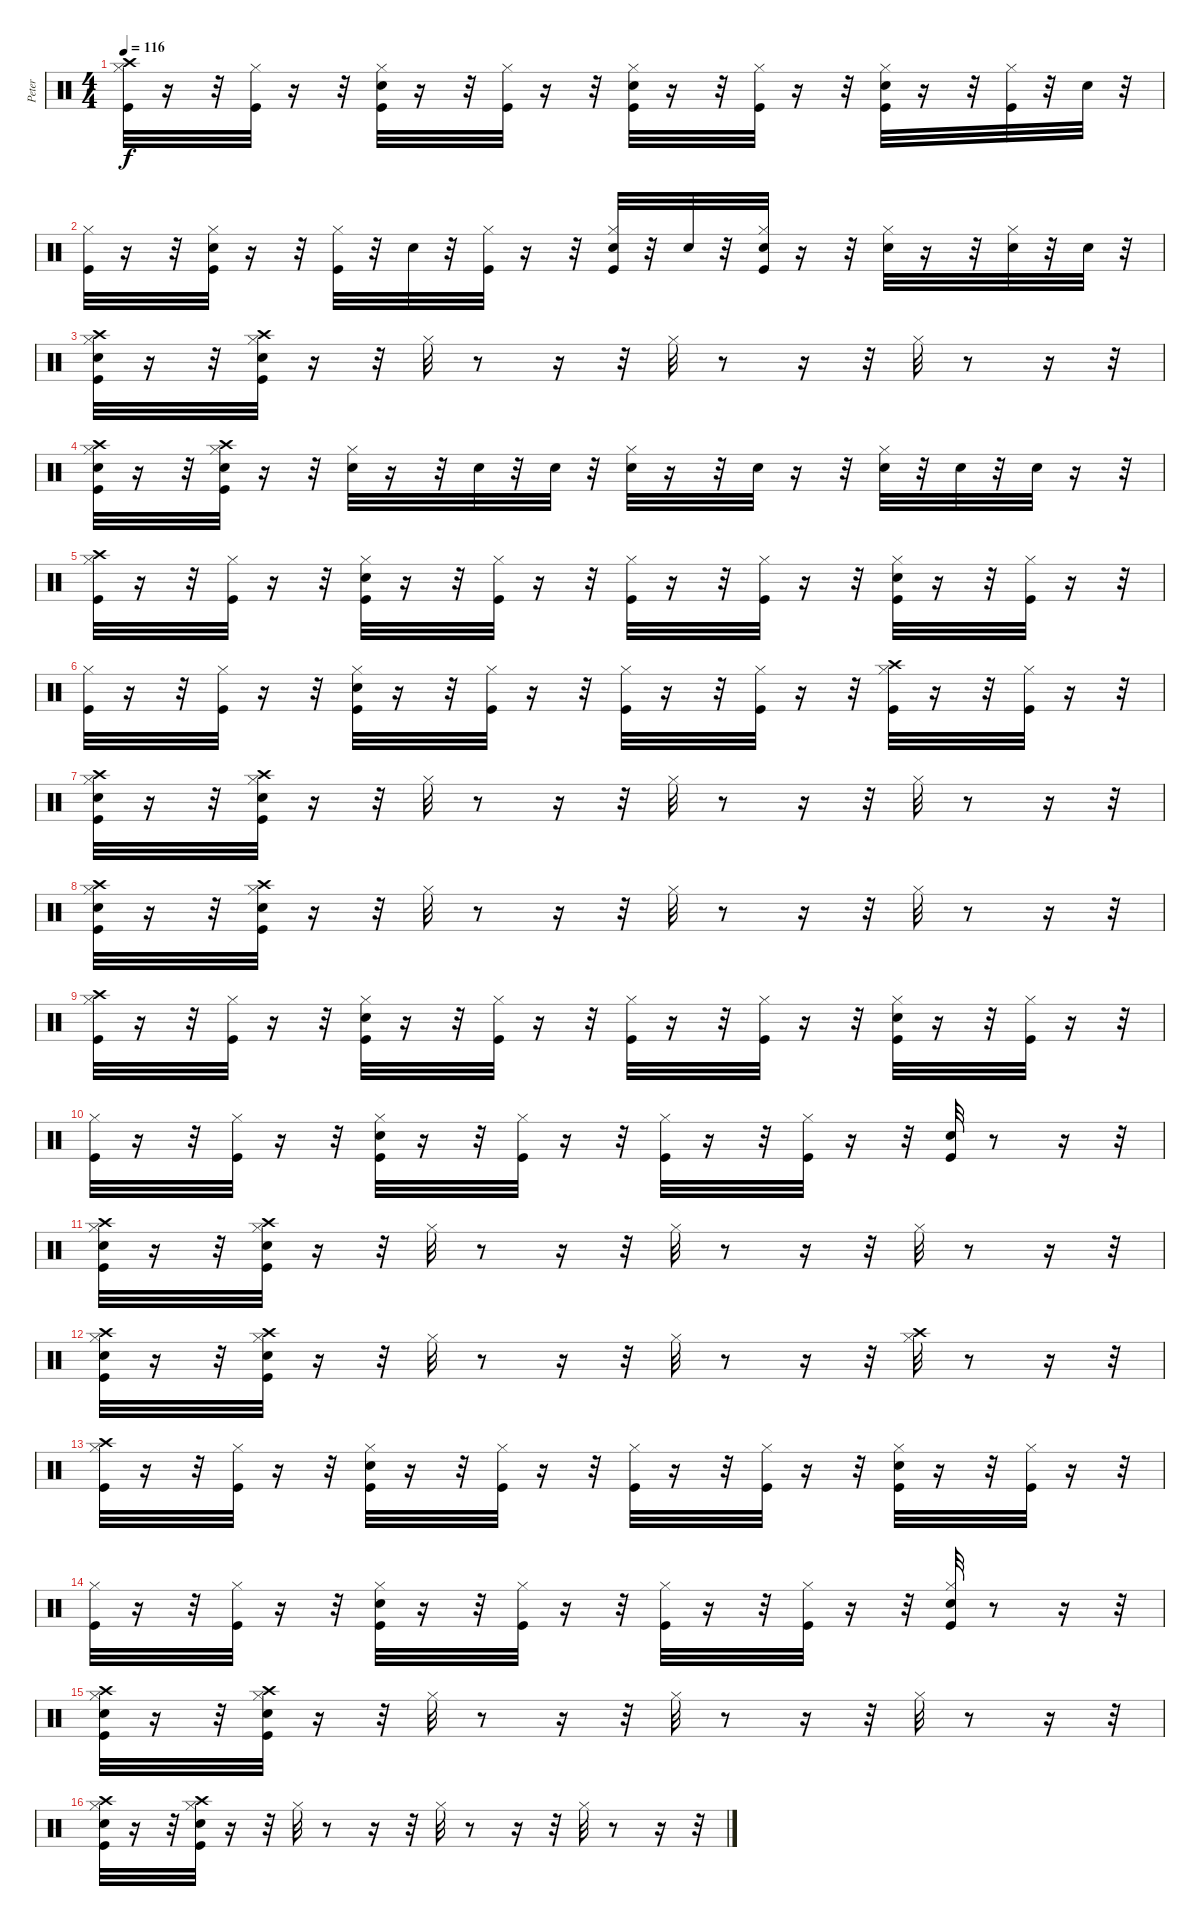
\track ("Peter" "Peter") {instrument percussion}
\staff {score}
\articulation defaults
\ts (4 4)
\tempo 116
\clef neutral
\ks c
("Crash high (hit)" "Kick (hit)" "Hi-Hat (closed)").32{dy f} r.16 r.32 ("Kick (hit)" "Hi-Hat (closed)").32 r.16 r.32 ("Snare (hit) 2" "Kick (hit)" "Hi-Hat (closed)").32 r.16 r.32 ("Hi-Hat (closed)" "Kick (hit)").32 r.16 r.32 ("Hi-Hat (closed)" "Snare (hit) 2" "Kick (hit)").32 r.16 r.32 ("Hi-Hat (closed)" "Kick (hit)").32 r.16 r.32 ("Hi-Hat (closed)" "Snare (hit) 2" "Kick (hit)").32 r.16 r.32 ("Hi-Hat (closed)" "Kick (hit)").32 r.32 "Snare (hit) 2".32 r.32 |
("Kick (hit)" "Hi-Hat (closed)").32 r.16 r.32 ("Kick (hit)" "Hi-Hat (closed)" "Snare (hit) 2").32 r.16 r.32 ("Kick (hit)" "Hi-Hat (closed)").32 r.32 "Snare (hit) 2".32 r.32 ("Kick (hit)" "Hi-Hat (closed)").32 r.16 r.32 ("Snare (hit) 2" "Kick (hit)" "Hi-Hat (closed)").32 r.32 "Snare (hit) 2".32 r.32 ("Snare (hit) 2" "Kick (hit)" "Hi-Hat (closed)").32 r.16 r.32 ("Hi-Hat (closed)" "Snare (hit) 2").32 r.16 r.32 ("Hi-Hat (closed)" "Snare (hit) 2").32 r.32 "Snare (hit) 2".32 r.32 |
("Snare (hit) 2" "Hi-Hat (closed)" "Kick (hit)" "Crash high (hit)").32 r.16 r.32 ("Kick (hit)" "Snare (hit) 2" "Crash high (hit)" "Hi-Hat (closed)").32 r.16 r.32 "Hi-Hat (closed)".32 r.8 r.16 r.32 "Hi-Hat (closed)".32 r.8 r.16 r.32 "Hi-Hat (closed)".32 r.8 r.16 r.32 |
("Snare (hit) 2" "Kick (hit)" "Crash high (hit)" "Hi-Hat (closed)").32 r.16 r.32 ("Crash high (hit)" "Snare (hit) 2" "Kick (hit)" "Hi-Hat (closed)").32 r.16 r.32 ("Snare (hit) 2" "Hi-Hat (closed)").32 r.16 r.32 "Snare (hit) 2".32 r.32 "Snare (hit) 2".32 r.32 ("Snare (hit) 2" "Hi-Hat (closed)").32 r.16 r.32 "Snare (hit) 2".32 r.16 r.32 ("Snare (hit) 2" "Hi-Hat (closed)").32 r.32 "Snare (hit) 2".32 r.32 "Snare (hit) 2".32 r.16 r.32 |
("Crash high (hit)" "Kick (hit)" "Hi-Hat (closed)").32 r.16 r.32 ("Kick (hit)" "Hi-Hat (closed)").32 r.16 r.32 ("Snare (hit) 2" "Kick (hit)" "Hi-Hat (closed)").32 r.16 r.32 ("Kick (hit)" "Hi-Hat (closed)").32 r.16 r.32 ("Kick (hit)" "Hi-Hat (closed)").32 r.16 r.32 ("Kick (hit)" "Hi-Hat (closed)").32 r.16 r.32 ("Snare (hit) 2" "Kick (hit)" "Hi-Hat (closed)").32 r.16 r.32 ("Kick (hit)" "Hi-Hat (closed)").32 r.16 r.32 |
("Kick (hit)" "Hi-Hat (closed)").32 r.16 r.32 ("Kick (hit)" "Hi-Hat (closed)").32 r.16 r.32 ("Snare (hit) 2" "Kick (hit)" "Hi-Hat (closed)").32 r.16 r.32 ("Kick (hit)" "Hi-Hat (closed)").32 r.16 r.32 ("Kick (hit)" "Hi-Hat (closed)").32 r.16 r.32 ("Kick (hit)" "Hi-Hat (closed)").32 r.16 r.32 ("Crash high (hit)" "Kick (hit)" "Hi-Hat (closed)").32 r.16 r.32 ("Kick (hit)" "Hi-Hat (closed)").32 r.16 r.32 |
("Snare (hit) 2" "Crash high (hit)" "Kick (hit)" "Hi-Hat (closed)").32 r.16 r.32 ("Snare (hit) 2" "Crash high (hit)" "Kick (hit)" "Hi-Hat (closed)").32 r.16 r.32 "Hi-Hat (closed)".32 r.8 r.16 r.32 "Hi-Hat (closed)".32 r.8 r.16 r.32 "Hi-Hat (closed)".32 r.8 r.16 r.32 |
("Snare (hit) 2" "Kick (hit)" "Crash high (hit)" "Hi-Hat (closed)").32 r.16 r.32 ("Kick (hit)" "Snare (hit) 2" "Crash high (hit)" "Hi-Hat (closed)").32 r.16 r.32 "Hi-Hat (closed)".32 r.8 r.16 r.32 "Hi-Hat (closed)".32 r.8 r.16 r.32 "Hi-Hat (closed)".32 r.8 r.16 r.32 |
("Crash high (hit)" "Kick (hit)" "Hi-Hat (closed)").32 r.16 r.32 ("Hi-Hat (closed)" "Kick (hit)").32 r.16 r.32 ("Snare (hit) 2" "Kick (hit)" "Hi-Hat (closed)").32 r.16 r.32 ("Hi-Hat (closed)" "Kick (hit)").32 r.16 r.32 ("Kick (hit)" "Hi-Hat (closed)").32 r.16 r.32 ("Hi-Hat (closed)" "Kick (hit)").32 r.16 r.32 ("Snare (hit) 2" "Hi-Hat (closed)" "Kick (hit)").32 r.16 r.32 ("Hi-Hat (closed)" "Kick (hit)").32 r.16 r.32 |
("Hi-Hat (closed)" "Kick (hit)").32 r.16 r.32 ("Hi-Hat (closed)" "Kick (hit)").32 r.16 r.32 ("Snare (hit) 2" "Hi-Hat (closed)" "Kick (hit)").32 r.16 r.32 ("Hi-Hat (closed)" "Kick (hit)").32 r.16 r.32 ("Hi-Hat (closed)" "Kick (hit)").32 r.16 r.32 ("Hi-Hat (closed)" "Kick (hit)").32 r.16 r.32 ("Snare (hit) 2" "Kick (hit)").32 r.8 r.16 r.32 |
("Kick (hit)" "Snare (hit) 2" "Hi-Hat (closed)" "Crash high (hit)").32 r.16 r.32 ("Kick (hit)" "Snare (hit) 2" "Hi-Hat (closed)" "Crash high (hit)").32 r.16 r.32 "Hi-Hat (closed)".32 r.8 r.16 r.32 "Hi-Hat (closed)".32 r.8 r.16 r.32 "Hi-Hat (closed)".32 r.8 r.16 r.32 |
("Kick (hit)" "Snare (hit) 2" "Crash high (hit)" "Hi-Hat (closed)").32 r.16 r.32 ("Kick (hit)" "Snare (hit) 2" "Hi-Hat (closed)" "Crash high (hit)").32 r.16 r.32 "Hi-Hat (closed)".32 r.8 r.16 r.32 "Hi-Hat (closed)".32 r.8 r.16 r.32 ("Crash high (hit)" "Hi-Hat (closed)").32 r.8 r.16 r.32 |
("Crash high (hit)" "Kick (hit)" "Hi-Hat (closed)").32 r.16 r.32 ("Kick (hit)" "Hi-Hat (closed)").32 r.16 r.32 ("Snare (hit) 2" "Kick (hit)" "Hi-Hat (closed)").32 r.16 r.32 ("Kick (hit)" "Hi-Hat (closed)").32 r.16 r.32 ("Kick (hit)" "Hi-Hat (closed)").32 r.16 r.32 ("Kick (hit)" "Hi-Hat (closed)").32 r.16 r.32 ("Snare (hit) 2" "Kick (hit)" "Hi-Hat (closed)").32 r.16 r.32 ("Kick (hit)" "Hi-Hat (closed)").32 r.16 r.32 |
("Kick (hit)" "Hi-Hat (closed)").32 r.16 r.32 ("Kick (hit)" "Hi-Hat (closed)").32 r.16 r.32 ("Snare (hit) 2" "Kick (hit)" "Hi-Hat (closed)").32 r.16 r.32 ("Kick (hit)" "Hi-Hat (closed)").32 r.16 r.32 ("Hi-Hat (closed)" "Kick (hit)").32 r.16 r.32 ("Hi-Hat (closed)" "Kick (hit)").32 r.16 r.32 ("Hi-Hat (closed)" "Kick (hit)" "Snare (hit) 2").32 r.8 r.16 r.32 |
("Kick (hit)" "Snare (hit) 2" "Hi-Hat (closed)" "Crash high (hit)").32 r.16 r.32 ("Kick (hit)" "Snare (hit) 2" "Hi-Hat (closed)" "Crash high (hit)").32 r.16 r.32 "Hi-Hat (closed)".32 r.8 r.16 r.32 "Hi-Hat (closed)".32 r.8 r.16 r.32 "Hi-Hat (closed)".32 r.8 r.16 r.32 |
("Kick (hit)" "Snare (hit) 2" "Hi-Hat (closed)" "Crash high (hit)").32 r.16 r.32 ("Kick (hit)" "Snare (hit) 2" "Hi-Hat (closed)" "Crash high (hit)").32 r.16 r.32 "Hi-Hat (closed)".32 r.8 r.16 r.32 "Hi-Hat (closed)".32 r.8 r.16 r.32 "Hi-Hat (closed)".32 r.8 r.16 r.32
